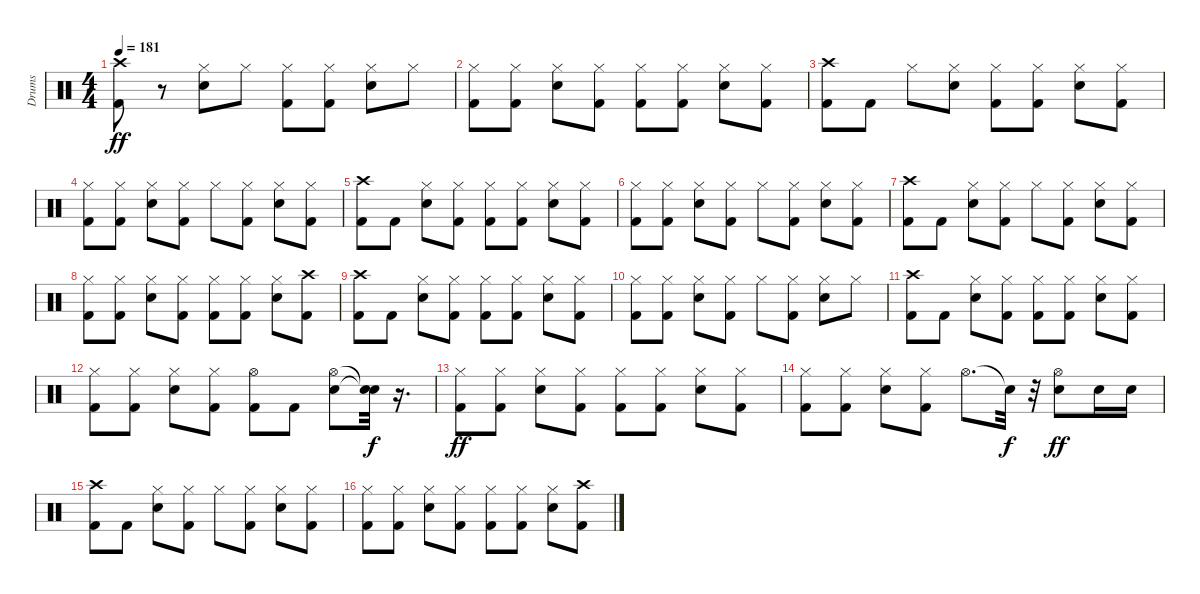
\track ("Drums" "Drums") {instrument percussion}
\staff {score}
\articulation defaults
\ts (4 4)
\tempo 181
\clef neutral
\ks c
("Kick (hit) 2" "Crash high (hit)").8{dy ff} r.8 ("Snare (hit) 2" "Hi-Hat (closed)").8 "Hi-Hat (closed)".8 ("Kick (hit) 2" "Hi-Hat (closed)").8 ("Kick (hit) 2" "Hi-Hat (closed)").8 ("Snare (hit) 2" "Hi-Hat (closed)").8 "Hi-Hat (closed)".8 |
("Kick (hit) 2" "Hi-Hat (closed)").8 ("Kick (hit) 2" "Hi-Hat (closed)").8 ("Snare (hit) 2" "Hi-Hat (closed)").8 ("Kick (hit) 2" "Hi-Hat (closed)").8 ("Kick (hit) 2" "Hi-Hat (closed)").8 ("Kick (hit) 2" "Hi-Hat (closed)").8 ("Snare (hit) 2" "Hi-Hat (closed)").8 ("Kick (hit) 2" "Hi-Hat (closed)").8 |
("Kick (hit) 2" "Crash high (hit)").8 "Kick (hit) 2".8 "Hi-Hat (closed)".8 ("Snare (hit) 2" "Hi-Hat (closed)").8 ("Kick (hit) 2" "Hi-Hat (closed)").8 ("Kick (hit) 2" "Hi-Hat (closed)").8 ("Snare (hit) 2" "Hi-Hat (closed)").8 ("Kick (hit) 2" "Hi-Hat (closed)").8 |
("Kick (hit) 2" "Hi-Hat (closed)").8 ("Kick (hit) 2" "Hi-Hat (closed)").8 ("Snare (hit) 2" "Hi-Hat (closed)").8 ("Kick (hit) 2" "Hi-Hat (closed)").8 "Hi-Hat (closed)".8 ("Kick (hit) 2" "Hi-Hat (closed)").8 ("Snare (hit) 2" "Hi-Hat (closed)").8 ("Kick (hit) 2" "Hi-Hat (closed)").8 |
("Kick (hit) 2" "Crash high (hit)").8 "Kick (hit) 2".8 ("Snare (hit) 2" "Hi-Hat (closed)").8 ("Kick (hit) 2" "Hi-Hat (closed)").8 ("Kick (hit) 2" "Hi-Hat (closed)").8 ("Kick (hit) 2" "Hi-Hat (closed)").8 ("Snare (hit) 2" "Hi-Hat (closed)").8 ("Kick (hit) 2" "Hi-Hat (closed)").8 |
("Kick (hit) 2" "Hi-Hat (closed)").8 ("Kick (hit) 2" "Hi-Hat (closed)").8 ("Snare (hit) 2" "Hi-Hat (closed)").8 ("Kick (hit) 2" "Hi-Hat (closed)").8 "Hi-Hat (closed)".8 ("Kick (hit) 2" "Hi-Hat (closed)").8 ("Snare (hit) 2" "Hi-Hat (closed)").8 ("Kick (hit) 2" "Hi-Hat (closed)").8 |
("Kick (hit) 2" "Crash high (hit)").8 "Kick (hit) 2".8 ("Snare (hit) 2" "Hi-Hat (closed)").8 ("Kick (hit) 2" "Hi-Hat (closed)").8 "Hi-Hat (closed)".8 ("Kick (hit) 2" "Hi-Hat (closed)").8 ("Snare (hit) 2" "Hi-Hat (closed)").8 ("Kick (hit) 2" "Hi-Hat (closed)").8 |
("Kick (hit) 2" "Hi-Hat (closed)").8 ("Kick (hit) 2" "Hi-Hat (closed)").8 ("Snare (hit) 2" "Hi-Hat (closed)").8 ("Kick (hit) 2" "Hi-Hat (closed)").8 ("Kick (hit) 2" "Hi-Hat (closed)").8 ("Kick (hit) 2" "Hi-Hat (closed)").8 ("Snare (hit) 2" "Hi-Hat (closed)").8 ("Kick (hit) 2" "Crash high (hit)").8 |
("Kick (hit) 2" "Crash high (hit)").8 "Kick (hit) 2".8 ("Snare (hit) 2" "Hi-Hat (closed)").8 ("Kick (hit) 2" "Hi-Hat (closed)").8 ("Kick (hit) 2" "Hi-Hat (closed)").8 ("Kick (hit) 2" "Hi-Hat (closed)").8 ("Snare (hit) 2" "Hi-Hat (closed)").8 ("Kick (hit) 2" "Hi-Hat (closed)").8 |
("Kick (hit) 2" "Hi-Hat (closed)").8 ("Kick (hit) 2" "Hi-Hat (closed)").8 ("Snare (hit) 2" "Hi-Hat (closed)").8 ("Kick (hit) 2" "Hi-Hat (closed)").8 "Hi-Hat (closed)".8 ("Kick (hit) 2" "Hi-Hat (closed)").8 ("Snare (hit) 2" "Hi-Hat (closed)").8 "Hi-Hat (closed)".8 |
("Kick (hit) 2" "Crash high (hit)").8 "Kick (hit) 2".8 ("Snare (hit) 2" "Hi-Hat (closed)").8 ("Kick (hit) 2" "Hi-Hat (closed)").8 ("Kick (hit) 2" "Hi-Hat (closed)").8 ("Kick (hit) 2" "Hi-Hat (closed)").8 ("Snare (hit) 2" "Hi-Hat (closed)").8 ("Kick (hit) 2" "Hi-Hat (closed)").8 |
("Kick (hit) 2" "Hi-Hat (closed)").8 ("Kick (hit) 2" "Hi-Hat (closed)").8 ("Snare (hit) 2" "Hi-Hat (closed)").8 ("Kick (hit) 2" "Hi-Hat (closed)").8 ("Kick (hit) 2" "Hi-Hat (open)").8 "Kick (hit) 2".8 ("Snare (hit) 2" "Hi-Hat (open)").8 ("Snare (hit)"{t} "Snare (hit)"{t}).32{dy f} r.16{d} |
("Kick (hit) 2" "Hi-Hat (closed)").8{dy ff} ("Kick (hit) 2" "Hi-Hat (closed)").8 ("Snare (hit) 2" "Hi-Hat (closed)").8 ("Kick (hit) 2" "Hi-Hat (closed)").8 ("Kick (hit) 2" "Hi-Hat (closed)").8 ("Kick (hit) 2" "Hi-Hat (closed)").8 ("Snare (hit) 2" "Hi-Hat (closed)").8 ("Kick (hit) 2" "Hi-Hat (closed)").8 |
("Kick (hit) 2" "Hi-Hat (closed)").8 ("Kick (hit) 2" "Hi-Hat (closed)").8 ("Snare (hit) 2" "Hi-Hat (closed)").8 ("Kick (hit) 2" "Hi-Hat (closed)").8 "Hi-Hat (open)".8{d} "Snare (hit)"{t}.32{dy f} r.32 ("Snare (hit) 2" "Hi-Hat (open)").8{dy ff} "Snare (hit) 2".16 "Snare (hit) 2".16 |
("Kick (hit) 2" "Crash high (hit)").8 "Kick (hit) 2".8 ("Snare (hit) 2" "Hi-Hat (closed)").8 ("Kick (hit) 2" "Hi-Hat (closed)").8 "Hi-Hat (closed)".8 ("Kick (hit) 2" "Hi-Hat (closed)").8 ("Snare (hit) 2" "Hi-Hat (closed)").8 ("Kick (hit) 2" "Hi-Hat (closed)").8 |
("Kick (hit) 2" "Hi-Hat (closed)").8 ("Kick (hit) 2" "Hi-Hat (closed)").8 ("Snare (hit) 2" "Hi-Hat (closed)").8 ("Kick (hit) 2" "Hi-Hat (closed)").8 ("Kick (hit) 2" "Hi-Hat (closed)").8 ("Kick (hit) 2" "Hi-Hat (closed)").8 ("Snare (hit) 2" "Hi-Hat (closed)").8 ("Kick (hit) 2" "Crash high (hit)").8
